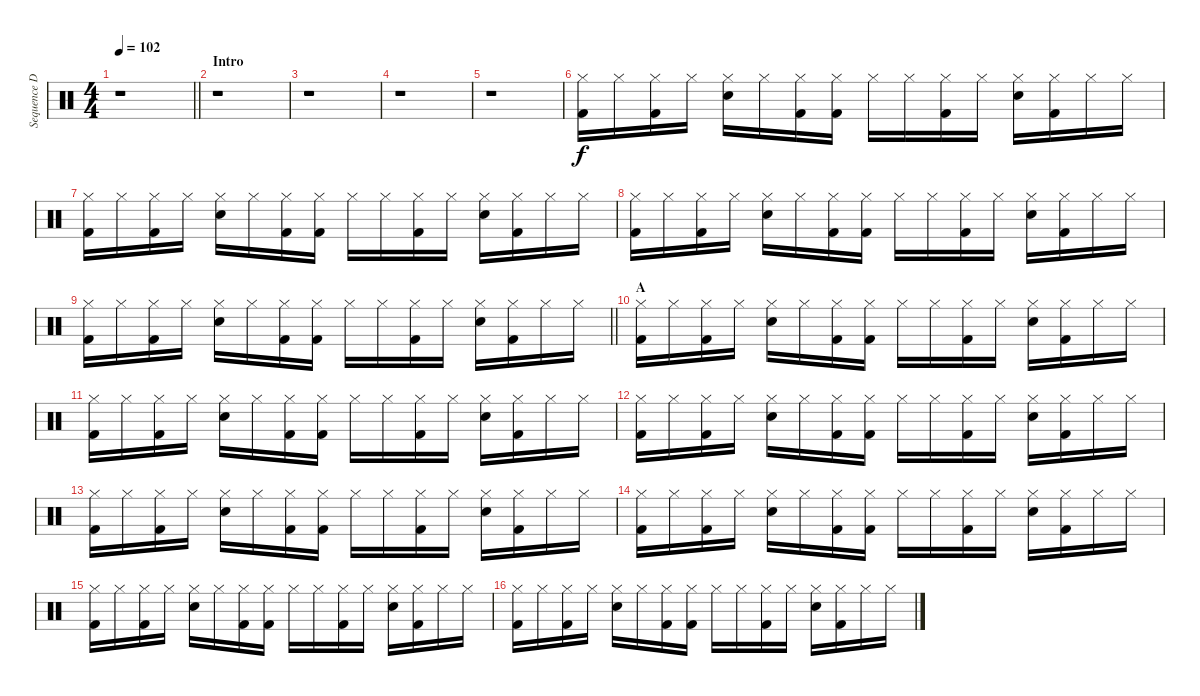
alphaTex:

\track ("Sequence Drums" "Sequence D") {instrument percussion}
\staff {score}
\articulation defaults
\ts (4 4)
\tempo 102
\clef neutral
\barLineRight lightlight
\ks c
r.1{dy f} |
\section ("" "Intro")
r.1 |
r.1 |
r.1 |
r.1 |
("Hi-Hat (closed)" "Kick (hit) 2").16 "Hi-Hat (closed)".16 ("Hi-Hat (closed)" "Kick (hit) 2").16 "Hi-Hat (closed)".16 ("Hi-Hat (closed)" "Electric Snare (hit)").16 "Hi-Hat (closed)".16 ("Hi-Hat (closed)" "Kick (hit) 2").16 ("Hi-Hat (closed)" "Kick (hit) 2").16 "Hi-Hat (closed)".16 "Hi-Hat (closed)".16 ("Hi-Hat (closed)" "Kick (hit) 2").16 "Hi-Hat (closed)".16 ("Hi-Hat (closed)" "Electric Snare (hit)").16 ("Hi-Hat (closed)" "Kick (hit) 2").16 "Hi-Hat (closed)".16 "Hi-Hat (closed)".16 |
("Hi-Hat (closed)" "Kick (hit) 2").16 "Hi-Hat (closed)".16 ("Hi-Hat (closed)" "Kick (hit) 2").16 "Hi-Hat (closed)".16 ("Hi-Hat (closed)" "Electric Snare (hit)").16 "Hi-Hat (closed)".16 ("Hi-Hat (closed)" "Kick (hit) 2").16 ("Hi-Hat (closed)" "Kick (hit) 2").16 "Hi-Hat (closed)".16 "Hi-Hat (closed)".16 ("Hi-Hat (closed)" "Kick (hit) 2").16 "Hi-Hat (closed)".16 ("Hi-Hat (closed)" "Electric Snare (hit)").16 ("Hi-Hat (closed)" "Kick (hit) 2").16 "Hi-Hat (closed)".16 "Hi-Hat (closed)".16 |
("Hi-Hat (closed)" "Kick (hit) 2").16 "Hi-Hat (closed)".16 ("Hi-Hat (closed)" "Kick (hit) 2").16 "Hi-Hat (closed)".16 ("Hi-Hat (closed)" "Electric Snare (hit)").16 "Hi-Hat (closed)".16 ("Hi-Hat (closed)" "Kick (hit) 2").16 ("Hi-Hat (closed)" "Kick (hit) 2").16 "Hi-Hat (closed)".16 "Hi-Hat (closed)".16 ("Hi-Hat (closed)" "Kick (hit) 2").16 "Hi-Hat (closed)".16 ("Hi-Hat (closed)" "Electric Snare (hit)").16 ("Hi-Hat (closed)" "Kick (hit) 2").16 "Hi-Hat (closed)".16 "Hi-Hat (closed)".16 |
\barLineRight lightlight
("Hi-Hat (closed)" "Kick (hit) 2").16 "Hi-Hat (closed)".16 ("Hi-Hat (closed)" "Kick (hit) 2").16 "Hi-Hat (closed)".16 ("Hi-Hat (closed)" "Electric Snare (hit)").16 "Hi-Hat (closed)".16 ("Hi-Hat (closed)" "Kick (hit) 2").16 ("Hi-Hat (closed)" "Kick (hit) 2").16 "Hi-Hat (closed)".16 "Hi-Hat (closed)".16 ("Hi-Hat (closed)" "Kick (hit) 2").16 "Hi-Hat (closed)".16 ("Hi-Hat (closed)" "Electric Snare (hit)").16 ("Hi-Hat (closed)" "Kick (hit) 2").16 "Hi-Hat (closed)".16 "Hi-Hat (closed)".16 |
\section ("" "A")
("Hi-Hat (closed)" "Kick (hit) 2").16 "Hi-Hat (closed)".16 ("Hi-Hat (closed)" "Kick (hit) 2").16 "Hi-Hat (closed)".16 ("Hi-Hat (closed)" "Electric Snare (hit)").16 "Hi-Hat (closed)".16 ("Hi-Hat (closed)" "Kick (hit) 2").16 ("Hi-Hat (closed)" "Kick (hit) 2").16 "Hi-Hat (closed)".16 "Hi-Hat (closed)".16 ("Hi-Hat (closed)" "Kick (hit) 2").16 "Hi-Hat (closed)".16 ("Hi-Hat (closed)" "Electric Snare (hit)").16 ("Hi-Hat (closed)" "Kick (hit) 2").16 "Hi-Hat (closed)".16 "Hi-Hat (closed)".16 |
("Hi-Hat (closed)" "Kick (hit) 2").16 "Hi-Hat (closed)".16 ("Hi-Hat (closed)" "Kick (hit) 2").16 "Hi-Hat (closed)".16 ("Hi-Hat (closed)" "Electric Snare (hit)").16 "Hi-Hat (closed)".16 ("Hi-Hat (closed)" "Kick (hit) 2").16 ("Hi-Hat (closed)" "Kick (hit) 2").16 "Hi-Hat (closed)".16 "Hi-Hat (closed)".16 ("Hi-Hat (closed)" "Kick (hit) 2").16 "Hi-Hat (closed)".16 ("Hi-Hat (closed)" "Electric Snare (hit)").16 ("Hi-Hat (closed)" "Kick (hit) 2").16 "Hi-Hat (closed)".16 "Hi-Hat (closed)".16 |
("Hi-Hat (closed)" "Kick (hit) 2").16 "Hi-Hat (closed)".16 ("Hi-Hat (closed)" "Kick (hit) 2").16 "Hi-Hat (closed)".16 ("Hi-Hat (closed)" "Electric Snare (hit)").16 "Hi-Hat (closed)".16 ("Hi-Hat (closed)" "Kick (hit) 2").16 ("Hi-Hat (closed)" "Kick (hit) 2").16 "Hi-Hat (closed)".16 "Hi-Hat (closed)".16 ("Hi-Hat (closed)" "Kick (hit) 2").16 "Hi-Hat (closed)".16 ("Hi-Hat (closed)" "Electric Snare (hit)").16 ("Hi-Hat (closed)" "Kick (hit) 2").16 "Hi-Hat (closed)".16 "Hi-Hat (closed)".16 |
("Hi-Hat (closed)" "Kick (hit) 2").16 "Hi-Hat (closed)".16 ("Hi-Hat (closed)" "Kick (hit) 2").16 "Hi-Hat (closed)".16 ("Hi-Hat (closed)" "Electric Snare (hit)").16 "Hi-Hat (closed)".16 ("Hi-Hat (closed)" "Kick (hit) 2").16 ("Hi-Hat (closed)" "Kick (hit) 2").16 "Hi-Hat (closed)".16 "Hi-Hat (closed)".16 ("Hi-Hat (closed)" "Kick (hit) 2").16 "Hi-Hat (closed)".16 ("Hi-Hat (closed)" "Electric Snare (hit)").16 ("Hi-Hat (closed)" "Kick (hit) 2").16 "Hi-Hat (closed)".16 "Hi-Hat (closed)".16 |
("Hi-Hat (closed)" "Kick (hit) 2").16 "Hi-Hat (closed)".16 ("Hi-Hat (closed)" "Kick (hit) 2").16 "Hi-Hat (closed)".16 ("Hi-Hat (closed)" "Electric Snare (hit)").16 "Hi-Hat (closed)".16 ("Hi-Hat (closed)" "Kick (hit) 2").16 ("Hi-Hat (closed)" "Kick (hit) 2").16 "Hi-Hat (closed)".16 "Hi-Hat (closed)".16 ("Hi-Hat (closed)" "Kick (hit) 2").16 "Hi-Hat (closed)".16 ("Hi-Hat (closed)" "Electric Snare (hit)").16 ("Hi-Hat (closed)" "Kick (hit) 2").16 "Hi-Hat (closed)".16 "Hi-Hat (closed)".16 |
("Hi-Hat (closed)" "Kick (hit) 2").16 "Hi-Hat (closed)".16 ("Hi-Hat (closed)" "Kick (hit) 2").16 "Hi-Hat (closed)".16 ("Hi-Hat (closed)" "Electric Snare (hit)").16 "Hi-Hat (closed)".16 ("Hi-Hat (closed)" "Kick (hit) 2").16 ("Hi-Hat (closed)" "Kick (hit) 2").16 "Hi-Hat (closed)".16 "Hi-Hat (closed)".16 ("Hi-Hat (closed)" "Kick (hit) 2").16 "Hi-Hat (closed)".16 ("Hi-Hat (closed)" "Electric Snare (hit)").16 ("Hi-Hat (closed)" "Kick (hit) 2").16 "Hi-Hat (closed)".16 "Hi-Hat (closed)".16 |
("Hi-Hat (closed)" "Kick (hit) 2").16 "Hi-Hat (closed)".16 ("Hi-Hat (closed)" "Kick (hit) 2").16 "Hi-Hat (closed)".16 ("Hi-Hat (closed)" "Electric Snare (hit)").16 "Hi-Hat (closed)".16 ("Hi-Hat (closed)" "Kick (hit) 2").16 ("Hi-Hat (closed)" "Kick (hit) 2").16 "Hi-Hat (closed)".16 "Hi-Hat (closed)".16 ("Hi-Hat (closed)" "Kick (hit) 2").16 "Hi-Hat (closed)".16 ("Hi-Hat (closed)" "Electric Snare (hit)").16 ("Hi-Hat (closed)" "Kick (hit) 2").16 "Hi-Hat (closed)".16 "Hi-Hat (closed)".16
